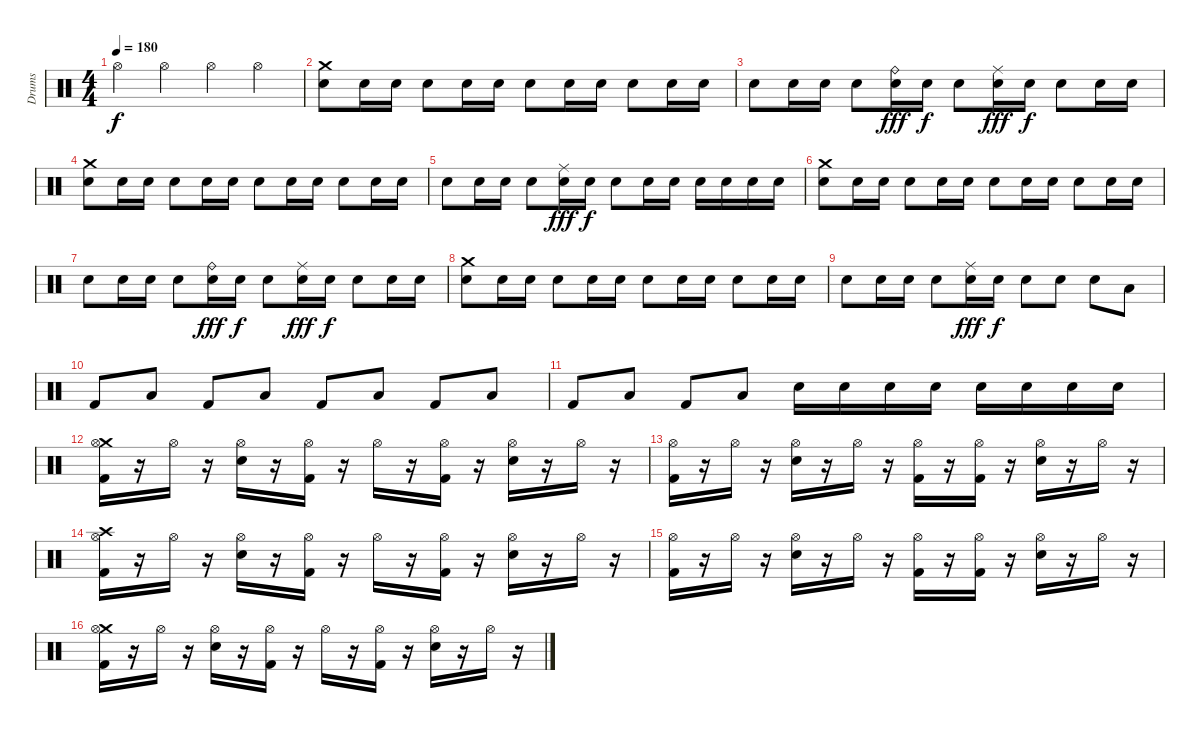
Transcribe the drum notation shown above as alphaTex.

\track ("Drums" "Drums") {instrument percussion}
\staff {score}
\articulation defaults
\ts (4 4)
\tempo 180
\clef neutral
\ks c "Hi-Hat (open)".4{dy f} "Hi-Hat (open)".4 "Hi-Hat (open)".4 "Hi-Hat (open)".4
|
("Crash medium (hit)" "Electric Snare (hit)").8 "Electric Snare (hit)".16 "Electric Snare (hit)".16 "Electric Snare (hit)".8 "Electric Snare (hit)".16 "Electric Snare (hit)".16 "Electric Snare (hit)".8 "Electric Snare (hit)".16 "Electric Snare (hit)".16 "Electric Snare (hit)".8 "Electric Snare (hit)".16 "Electric Snare (hit)".16 |
"Electric Snare (hit)".8 "Electric Snare (hit)".16 "Electric Snare (hit)".16 "Electric Snare (hit)".8 ("Ride (bell)" "Electric Snare (hit)").16{dy fff} "Electric Snare (hit)".16{dy f} "Electric Snare (hit)".8 ("Ride (middle)" "Electric Snare (hit)").16{dy fff} "Electric Snare (hit)".16{dy f} "Electric Snare (hit)".8 "Electric Snare (hit)".16 "Electric Snare (hit)".16 |
("Crash medium (hit)" "Electric Snare (hit)").8 "Electric Snare (hit)".16 "Electric Snare (hit)".16 "Electric Snare (hit)".8 "Electric Snare (hit)".16 "Electric Snare (hit)".16 "Electric Snare (hit)".8 "Electric Snare (hit)".16 "Electric Snare (hit)".16 "Electric Snare (hit)".8 "Electric Snare (hit)".16 "Electric Snare (hit)".16 |
"Electric Snare (hit)".8 "Electric Snare (hit)".16 "Electric Snare (hit)".16 "Electric Snare (hit)".8 ("Ride (middle)" "Electric Snare (hit)").16{dy fff} "Electric Snare (hit)".16{dy f} "Electric Snare (hit)".8 "Electric Snare (hit)".16 "Electric Snare (hit)".16 "Electric Snare (hit)".16 "Electric Snare (hit)".16 "Electric Snare (hit)".16 "Electric Snare (hit)".16 |
("Crash medium (hit)" "Electric Snare (hit)").8 "Electric Snare (hit)".16 "Electric Snare (hit)".16 "Electric Snare (hit)".8 "Electric Snare (hit)".16 "Electric Snare (hit)".16 "Electric Snare (hit)".8 "Electric Snare (hit)".16 "Electric Snare (hit)".16 "Electric Snare (hit)".8 "Electric Snare (hit)".16 "Electric Snare (hit)".16 |
"Electric Snare (hit)".8 "Electric Snare (hit)".16 "Electric Snare (hit)".16 "Electric Snare (hit)".8 ("Ride (bell)" "Electric Snare (hit)").16{dy fff} "Electric Snare (hit)".16{dy f} "Electric Snare (hit)".8 ("Ride (middle)" "Electric Snare (hit)").16{dy fff} "Electric Snare (hit)".16{dy f} "Electric Snare (hit)".8 "Electric Snare (hit)".16 "Electric Snare (hit)".16 |
("Crash medium (hit)" "Electric Snare (hit)").8 "Electric Snare (hit)".16 "Electric Snare (hit)".16 "Electric Snare (hit)".8 "Electric Snare (hit)".16 "Electric Snare (hit)".16 "Electric Snare (hit)".8 "Electric Snare (hit)".16 "Electric Snare (hit)".16 "Electric Snare (hit)".8 "Electric Snare (hit)".16 "Electric Snare (hit)".16 |
"Electric Snare (hit)".8 "Electric Snare (hit)".16 "Electric Snare (hit)".16 "Electric Snare (hit)".8 ("Ride (middle)" "Electric Snare (hit)").16{dy fff} "Electric Snare (hit)".16{dy f} "Electric Snare (hit)".8 "Electric Snare (hit)".8 "Electric Snare (hit)".8 "Low Floor Tom (hit)".8 |
"Kick (hit) 2".8 "Low Floor Tom (hit)".8 "Kick (hit) 2".8 "Low Floor Tom (hit)".8 "Kick (hit) 2".8 "Low Floor Tom (hit)".8 "Kick (hit) 2".8 "Low Floor Tom (hit)".8 |
"Kick (hit) 2".8 "Low Floor Tom (hit)".8 "Kick (hit) 2".8 "Low Floor Tom (hit)".8 "Electric Snare (hit)".16 "Electric Snare (hit)".16 "Electric Snare (hit)".16 "Electric Snare (hit)".16 "Electric Snare (hit)".16 "Electric Snare (hit)".16 "Electric Snare (hit)".16 "Electric Snare (hit)".16 |
("Crash medium (hit)" "Hi-Hat (open)" "Kick (hit) 2").16 r.16 "Hi-Hat (open)".16 r.16 ("Hi-Hat (open)" "Electric Snare (hit)").16 r.16 ("Hi-Hat (open)" "Kick (hit) 2").16 r.16 "Hi-Hat (open)".16 r.16 ("Hi-Hat (open)" "Kick (hit) 2").16 r.16 ("Hi-Hat (open)" "Electric Snare (hit)").16 r.16 "Hi-Hat (open)".16 r.16 |
("Hi-Hat (open)" "Kick (hit) 2").16 r.16 "Hi-Hat (open)".16 r.16 ("Hi-Hat (open)" "Electric Snare (hit)").16 r.16 "Hi-Hat (open)".16 r.16 ("Hi-Hat (open)" "Kick (hit) 2").16 r.16 ("Hi-Hat (open)" "Kick (hit) 2").16 r.16 ("Hi-Hat (open)" "Electric Snare (hit)").16 r.16 "Hi-Hat (open)".16 r.16 |
("Crash high (hit)" "Hi-Hat (open)" "Kick (hit) 2").16 r.16 "Hi-Hat (open)".16 r.16 ("Hi-Hat (open)" "Electric Snare (hit)").16 r.16 ("Hi-Hat (open)" "Kick (hit) 2").16 r.16 "Hi-Hat (open)".16 r.16 ("Hi-Hat (open)" "Kick (hit) 2").16 r.16 ("Hi-Hat (open)" "Electric Snare (hit)").16 r.16 "Hi-Hat (open)".16 r.16 |
("Hi-Hat (open)" "Kick (hit) 2").16 r.16 "Hi-Hat (open)".16 r.16 ("Hi-Hat (open)" "Electric Snare (hit)").16 r.16 "Hi-Hat (open)".16 r.16 ("Hi-Hat (open)" "Kick (hit) 2").16 r.16 ("Hi-Hat (open)" "Kick (hit) 2").16 r.16 ("Hi-Hat (open)" "Electric Snare (hit)").16 r.16 "Hi-Hat (open)".16 r.16 |
("Crash medium (hit)" "Hi-Hat (open)" "Kick (hit) 2").16 r.16 "Hi-Hat (open)".16 r.16 ("Hi-Hat (open)" "Electric Snare (hit)").16 r.16 ("Hi-Hat (open)" "Kick (hit) 2").16 r.16 "Hi-Hat (open)".16 r.16 ("Hi-Hat (open)" "Kick (hit) 2").16 r.16 ("Hi-Hat (open)" "Electric Snare (hit)").16 r.16 "Hi-Hat (open)".16 r.16
